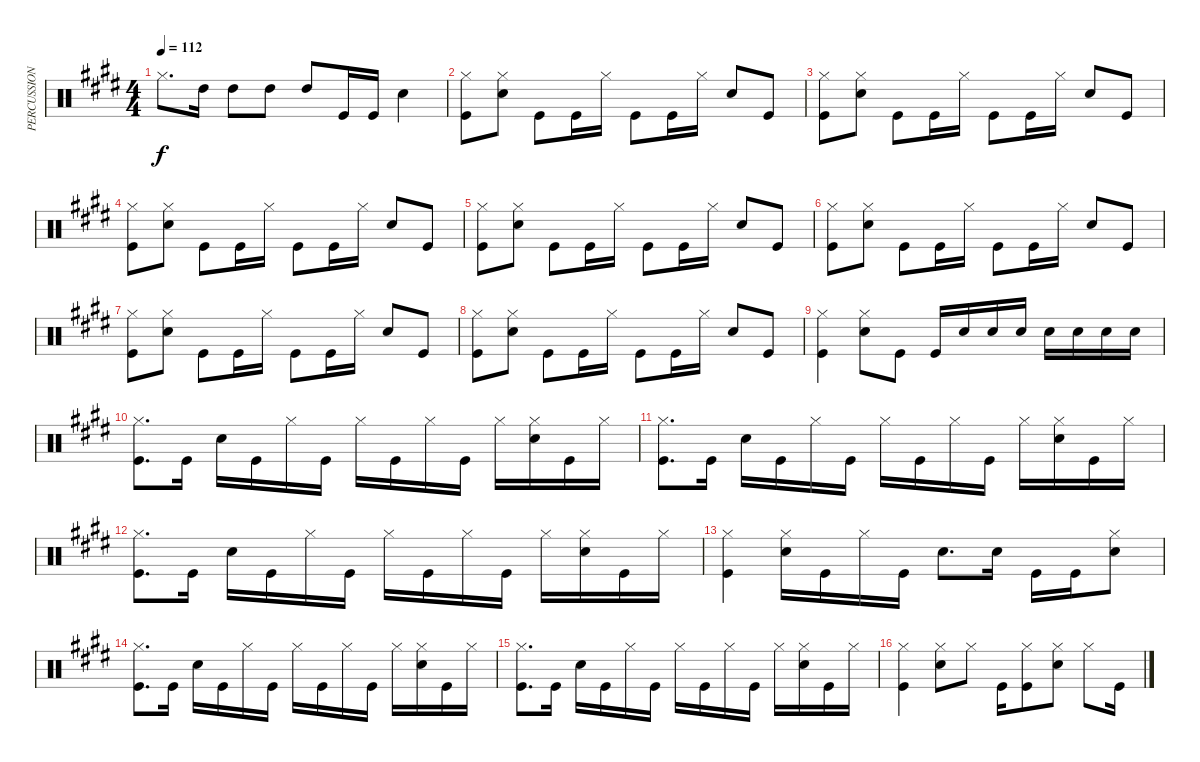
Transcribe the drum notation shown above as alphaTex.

\track ("PERCUSSION" "PERCUSSION") {instrument percussion}
\staff {score}
\articulation defaults
\ts (4 4)
\tempo 112
\clef neutral
\ks c#minor "Hi-Hat (closed)".8{d dy f} "High Tom (hit)".16 "High Tom (hit)".8 "High Tom (hit)".8 "High Tom (hit)".8 "Kick (hit)".16 "Kick (hit)".16 "Snare (hit) 2".4
|
("Hi-Hat (closed)" "Kick (hit)").8 ("Hi-Hat (closed)" "Snare (hit) 2").8 "Kick (hit)".8 "Kick (hit)".16 "Hi-Hat (closed)".16 "Kick (hit)".8 "Kick (hit)".16 "Hi-Hat (closed)".16 "Snare (hit) 2".8 "Kick (hit)".8 |
("Hi-Hat (closed)" "Kick (hit)").8 ("Hi-Hat (closed)" "Snare (hit) 2").8 "Kick (hit)".8 "Kick (hit)".16 "Hi-Hat (closed)".16 "Kick (hit)".8 "Kick (hit)".16 "Hi-Hat (closed)".16 "Snare (hit) 2".8 "Kick (hit)".8 |
("Hi-Hat (closed)" "Kick (hit)").8 ("Hi-Hat (closed)" "Snare (hit) 2").8 "Kick (hit)".8 "Kick (hit)".16 "Hi-Hat (closed)".16 "Kick (hit)".8 "Kick (hit)".16 "Hi-Hat (closed)".16 "Snare (hit) 2".8 "Kick (hit)".8 |
("Hi-Hat (closed)" "Kick (hit)").8 ("Hi-Hat (closed)" "Snare (hit) 2").8 "Kick (hit)".8 "Kick (hit)".16 "Hi-Hat (closed)".16 "Kick (hit)".8 "Kick (hit)".16 "Hi-Hat (closed)".16 "Snare (hit) 2".8 "Kick (hit)".8 |
("Hi-Hat (closed)" "Kick (hit)").8 ("Hi-Hat (closed)" "Snare (hit) 2").8 "Kick (hit)".8 "Kick (hit)".16 "Hi-Hat (closed)".16 "Kick (hit)".8 "Kick (hit)".16 "Hi-Hat (closed)".16 "Snare (hit) 2".8 "Kick (hit)".8 |
("Hi-Hat (closed)" "Kick (hit)").8 ("Hi-Hat (closed)" "Snare (hit) 2").8 "Kick (hit)".8 "Kick (hit)".16 "Hi-Hat (closed)".16 "Kick (hit)".8 "Kick (hit)".16 "Hi-Hat (closed)".16 "Snare (hit) 2".8 "Kick (hit)".8 |
("Hi-Hat (closed)" "Kick (hit)").8 ("Hi-Hat (closed)" "Snare (hit) 2").8 "Kick (hit)".8 "Kick (hit)".16 "Hi-Hat (closed)".16 "Kick (hit)".8 "Kick (hit)".16 "Hi-Hat (closed)".16 "Snare (hit) 2".8 "Kick (hit)".8 |
("Hi-Hat (closed)" "Kick (hit)").4 ("Hi-Hat (closed)" "Snare (hit) 2").8 "Kick (hit)".8 "Kick (hit)".16 "Snare (hit) 2".16 "Snare (hit) 2".16 "Snare (hit) 2".16 "Snare (hit) 2".16 "Snare (hit) 2".16 "Snare (hit) 2".16 "Snare (hit) 2".16 |
("Hi-Hat (closed)" "Kick (hit)").8{d} "Kick (hit)".16 "Snare (hit) 2".16 "Kick (hit)".16 "Hi-Hat (closed)".16 "Kick (hit)".16 "Hi-Hat (closed)".16 "Kick (hit)".16 "Hi-Hat (closed)".16 "Kick (hit)".16 "Hi-Hat (closed)".16 ("Hi-Hat (closed)" "Snare (hit) 2").16 "Kick (hit)".16 "Hi-Hat (closed)".16 |
("Hi-Hat (closed)" "Kick (hit)").8{d} "Kick (hit)".16 "Snare (hit) 2".16 "Kick (hit)".16 "Hi-Hat (closed)".16 "Kick (hit)".16 "Hi-Hat (closed)".16 "Kick (hit)".16 "Hi-Hat (closed)".16 "Kick (hit)".16 "Hi-Hat (closed)".16 ("Hi-Hat (closed)" "Snare (hit) 2").16 "Kick (hit)".16 "Hi-Hat (closed)".16 |
("Hi-Hat (closed)" "Kick (hit)").8{d} "Kick (hit)".16 "Snare (hit) 2".16 "Kick (hit)".16 "Hi-Hat (closed)".16 "Kick (hit)".16 "Hi-Hat (closed)".16 "Kick (hit)".16 "Hi-Hat (closed)".16 "Kick (hit)".16 "Hi-Hat (closed)".16 ("Hi-Hat (closed)" "Snare (hit) 2").16 "Kick (hit)".16 "Hi-Hat (closed)".16 |
("Hi-Hat (closed)" "Kick (hit)").4 ("Hi-Hat (closed)" "Snare (hit) 2").16 "Kick (hit)".16 "Hi-Hat (closed)".16 "Kick (hit)".16 "Snare (hit) 2".8{d} "Snare (hit) 2".16 "Kick (hit)".16 "Kick (hit)".16 ("Hi-Hat (closed)" "Snare (hit) 2").8 |
("Hi-Hat (closed)" "Kick (hit)").8{d} "Kick (hit)".16 "Snare (hit) 2".16 "Kick (hit)".16 "Hi-Hat (closed)".16 "Kick (hit)".16 "Hi-Hat (closed)".16 "Kick (hit)".16 "Hi-Hat (closed)".16 "Kick (hit)".16 "Hi-Hat (closed)".16 ("Hi-Hat (closed)" "Snare (hit) 2").16 "Kick (hit)".16 "Hi-Hat (closed)".16 |
("Hi-Hat (closed)" "Kick (hit)").8{d} "Kick (hit)".16 "Snare (hit) 2".16 "Kick (hit)".16 "Hi-Hat (closed)".16 "Kick (hit)".16 "Hi-Hat (closed)".16 "Kick (hit)".16 "Hi-Hat (closed)".16 "Kick (hit)".16 "Hi-Hat (closed)".16 ("Hi-Hat (closed)" "Snare (hit) 2").16 "Kick (hit)".16 "Hi-Hat (closed)".16 |
("Hi-Hat (closed)" "Kick (hit)").4 ("Hi-Hat (closed)" "Snare (hit) 2").8 "Hi-Hat (closed)".8 "Kick (hit)".16 ("Hi-Hat (closed)" "Kick (hit)").8 ("Hi-Hat (closed)" "Snare (hit) 2").8 "Hi-Hat (closed)".8 "Kick (hit)".16
